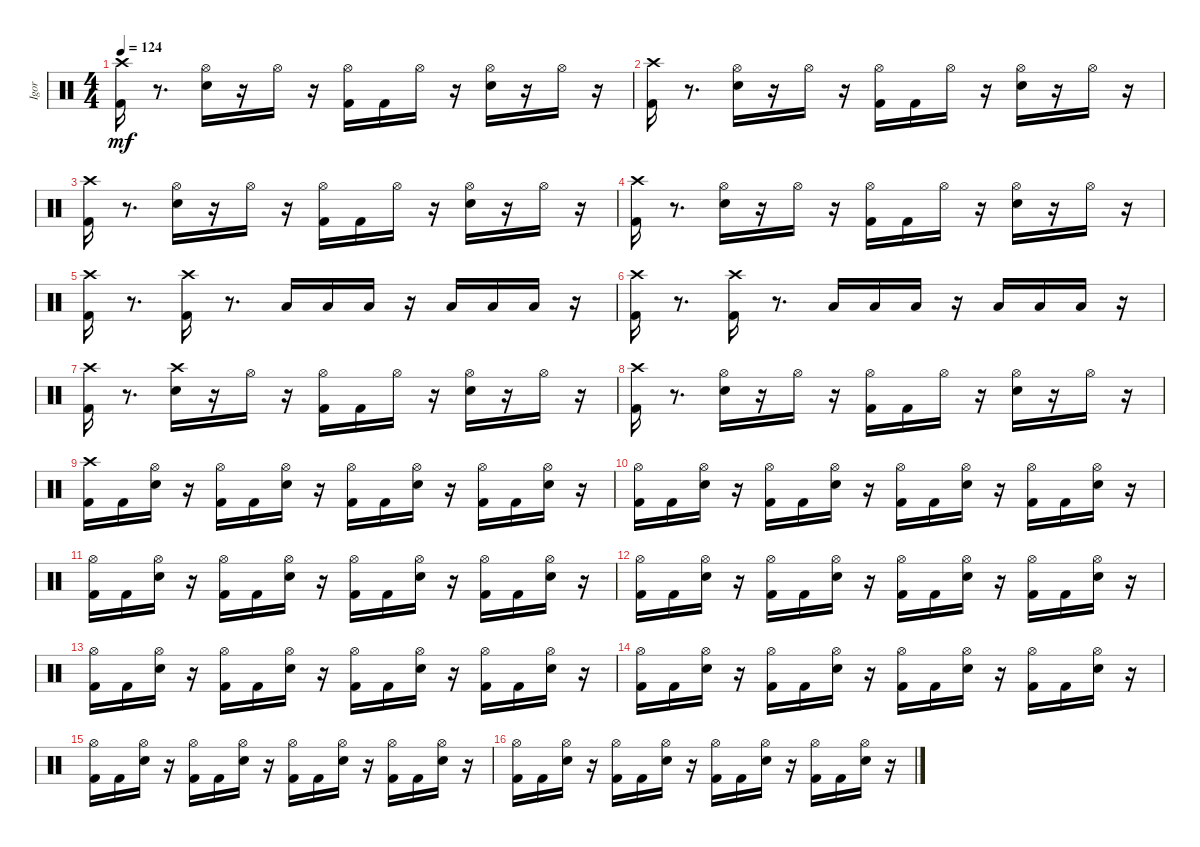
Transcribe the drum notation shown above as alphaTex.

\track ("Igor" "Igor") {instrument percussion}
\staff {score}
\articulation defaults
\ts (4 4)
\tempo 124
\clef neutral
\ks c
("Crash high (hit)" "Kick (hit) 2").16{dy mf} r.8{d} ("Snare (hit) 2" "Hi-Hat (open)").16 r.16 "Hi-Hat (open)".16 r.16 ("Hi-Hat (open)" "Kick (hit) 2").16 "Kick (hit) 2".16 "Hi-Hat (open)".16 r.16 ("Snare (hit) 2" "Hi-Hat (open)").16 r.16 "Hi-Hat (open)".16 r.16 |
("Crash high (hit)" "Kick (hit) 2").16 r.8{d} ("Snare (hit) 2" "Hi-Hat (open)").16 r.16 "Hi-Hat (open)".16 r.16 ("Hi-Hat (open)" "Kick (hit) 2").16 "Kick (hit) 2".16 "Hi-Hat (open)".16 r.16 ("Snare (hit) 2" "Hi-Hat (open)").16 r.16 "Hi-Hat (open)".16 r.16 |
("Crash high (hit)" "Kick (hit) 2").16 r.8{d} ("Snare (hit) 2" "Hi-Hat (open)").16 r.16 "Hi-Hat (open)".16 r.16 ("Hi-Hat (open)" "Kick (hit) 2").16 "Kick (hit) 2".16 "Hi-Hat (open)".16 r.16 ("Snare (hit) 2" "Hi-Hat (open)").16 r.16 "Hi-Hat (open)".16 r.16 |
("Crash high (hit)" "Kick (hit) 2").16 r.8{d} ("Snare (hit) 2" "Hi-Hat (open)").16 r.16 "Hi-Hat (open)".16 r.16 ("Hi-Hat (open)" "Kick (hit) 2").16 "Kick (hit) 2".16 "Hi-Hat (open)".16 r.16 ("Snare (hit) 2" "Hi-Hat (open)").16 r.16 "Hi-Hat (open)".16 r.16 |
("Kick (hit) 2" "Crash high (hit)").16 r.8{d} ("Crash high (hit)" "Kick (hit) 2").16 r.8{d} "Low Tom (hit)".16 "Low Tom (hit)".16 "Low Floor Tom (hit)".16 r.16 "Low Tom (hit)".16 "Low Tom (hit)".16 "Low Floor Tom (hit)".16 r.16 |
("Kick (hit) 2" "Crash high (hit)").16 r.8{d} ("Crash high (hit)" "Kick (hit) 2").16 r.8{d} "Low Tom (hit)".16 "Low Tom (hit)".16 "Low Floor Tom (hit)".16 r.16 "Low Tom (hit)".16 "Low Tom (hit)".16 "Low Floor Tom (hit)".16 r.16 |
("Crash high (hit)" "Kick (hit) 2").16 r.8{d} ("Snare (hit) 2" "Crash high (hit)").16 r.16 "Hi-Hat (open)".16 r.16 ("Hi-Hat (open)" "Kick (hit) 2").16 "Kick (hit) 2".16 "Hi-Hat (open)".16 r.16 ("Snare (hit) 2" "Hi-Hat (open)").16 r.16 "Hi-Hat (open)".16 r.16 |
("Crash high (hit)" "Kick (hit) 2").16 r.8{d} ("Snare (hit) 2" "Hi-Hat (open)").16 r.16 "Hi-Hat (open)".16 r.16 ("Hi-Hat (open)" "Kick (hit) 2").16 "Kick (hit) 2".16 "Hi-Hat (open)".16 r.16 ("Snare (hit) 2" "Hi-Hat (open)").16 r.16 "Hi-Hat (open)".16 r.16 |
("Crash high (hit)" "Kick (hit) 2").16 "Kick (hit) 2".16 ("Snare (hit) 2" "Hi-Hat (open)").16 r.16 ("Kick (hit) 2" "Hi-Hat (open)").16 "Kick (hit) 2".16 ("Snare (hit) 2" "Hi-Hat (open)").16 r.16 ("Kick (hit) 2" "Hi-Hat (open)").16 "Kick (hit) 2".16 ("Snare (hit) 2" "Hi-Hat (open)").16 r.16 ("Kick (hit) 2" "Hi-Hat (open)").16 "Kick (hit) 2".16 ("Snare (hit) 2" "Hi-Hat (open)").16 r.16 |
("Kick (hit) 2" "Hi-Hat (open)").16 "Kick (hit) 2".16 ("Snare (hit) 2" "Hi-Hat (open)").16 r.16 ("Kick (hit) 2" "Hi-Hat (open)").16 "Kick (hit) 2".16 ("Snare (hit) 2" "Hi-Hat (open)").16 r.16 ("Kick (hit) 2" "Hi-Hat (open)").16 "Kick (hit) 2".16 ("Snare (hit) 2" "Hi-Hat (open)").16 r.16 ("Kick (hit) 2" "Hi-Hat (open)").16 "Kick (hit) 2".16 ("Snare (hit) 2" "Hi-Hat (open)").16 r.16 |
("Kick (hit) 2" "Hi-Hat (open)").16 "Kick (hit) 2".16 ("Snare (hit) 2" "Hi-Hat (open)").16 r.16 ("Kick (hit) 2" "Hi-Hat (open)").16 "Kick (hit) 2".16 ("Snare (hit) 2" "Hi-Hat (open)").16 r.16 ("Kick (hit) 2" "Hi-Hat (open)").16 "Kick (hit) 2".16 ("Snare (hit) 2" "Hi-Hat (open)").16 r.16 ("Kick (hit) 2" "Hi-Hat (open)").16 "Kick (hit) 2".16 ("Snare (hit) 2" "Hi-Hat (open)").16 r.16 |
("Kick (hit) 2" "Hi-Hat (open)").16 "Kick (hit) 2".16 ("Snare (hit) 2" "Hi-Hat (open)").16 r.16 ("Kick (hit) 2" "Hi-Hat (open)").16 "Kick (hit) 2".16 ("Snare (hit) 2" "Hi-Hat (open)").16 r.16 ("Kick (hit) 2" "Hi-Hat (open)").16 "Kick (hit) 2".16 ("Snare (hit) 2" "Hi-Hat (open)").16 r.16 ("Kick (hit) 2" "Hi-Hat (open)").16 "Kick (hit) 2".16 ("Snare (hit) 2" "Hi-Hat (open)").16 r.16 |
("Kick (hit) 2" "Hi-Hat (open)").16 "Kick (hit) 2".16 ("Snare (hit) 2" "Hi-Hat (open)").16 r.16 ("Kick (hit) 2" "Hi-Hat (open)").16 "Kick (hit) 2".16 ("Snare (hit) 2" "Hi-Hat (open)").16 r.16 ("Kick (hit) 2" "Hi-Hat (open)").16 "Kick (hit) 2".16 ("Snare (hit) 2" "Hi-Hat (open)").16 r.16 ("Kick (hit) 2" "Hi-Hat (open)").16 "Kick (hit) 2".16 ("Snare (hit) 2" "Hi-Hat (open)").16 r.16 |
("Kick (hit) 2" "Hi-Hat (open)").16 "Kick (hit) 2".16 ("Snare (hit) 2" "Hi-Hat (open)").16 r.16 ("Kick (hit) 2" "Hi-Hat (open)").16 "Kick (hit) 2".16 ("Snare (hit) 2" "Hi-Hat (open)").16 r.16 ("Kick (hit) 2" "Hi-Hat (open)").16 "Kick (hit) 2".16 ("Snare (hit) 2" "Hi-Hat (open)").16 r.16 ("Kick (hit) 2" "Hi-Hat (open)").16 "Kick (hit) 2".16 ("Snare (hit) 2" "Hi-Hat (open)").16 r.16 |
("Kick (hit) 2" "Hi-Hat (open)").16 "Kick (hit) 2".16 ("Snare (hit) 2" "Hi-Hat (open)").16 r.16 ("Kick (hit) 2" "Hi-Hat (open)").16 "Kick (hit) 2".16 ("Snare (hit) 2" "Hi-Hat (open)").16 r.16 ("Kick (hit) 2" "Hi-Hat (open)").16 "Kick (hit) 2".16 ("Snare (hit) 2" "Hi-Hat (open)").16 r.16 ("Kick (hit) 2" "Hi-Hat (open)").16 "Kick (hit) 2".16 ("Snare (hit) 2" "Hi-Hat (open)").16 r.16 |
("Kick (hit) 2" "Hi-Hat (open)").16 "Kick (hit) 2".16 ("Snare (hit) 2" "Hi-Hat (open)").16 r.16 ("Kick (hit) 2" "Hi-Hat (open)").16 "Kick (hit) 2".16 ("Snare (hit) 2" "Hi-Hat (open)").16 r.16 ("Kick (hit) 2" "Hi-Hat (open)").16 "Kick (hit) 2".16 ("Snare (hit) 2" "Hi-Hat (open)").16 r.16 ("Kick (hit) 2" "Hi-Hat (open)").16 "Kick (hit) 2".16 ("Snare (hit) 2" "Hi-Hat (open)").16 r.16
